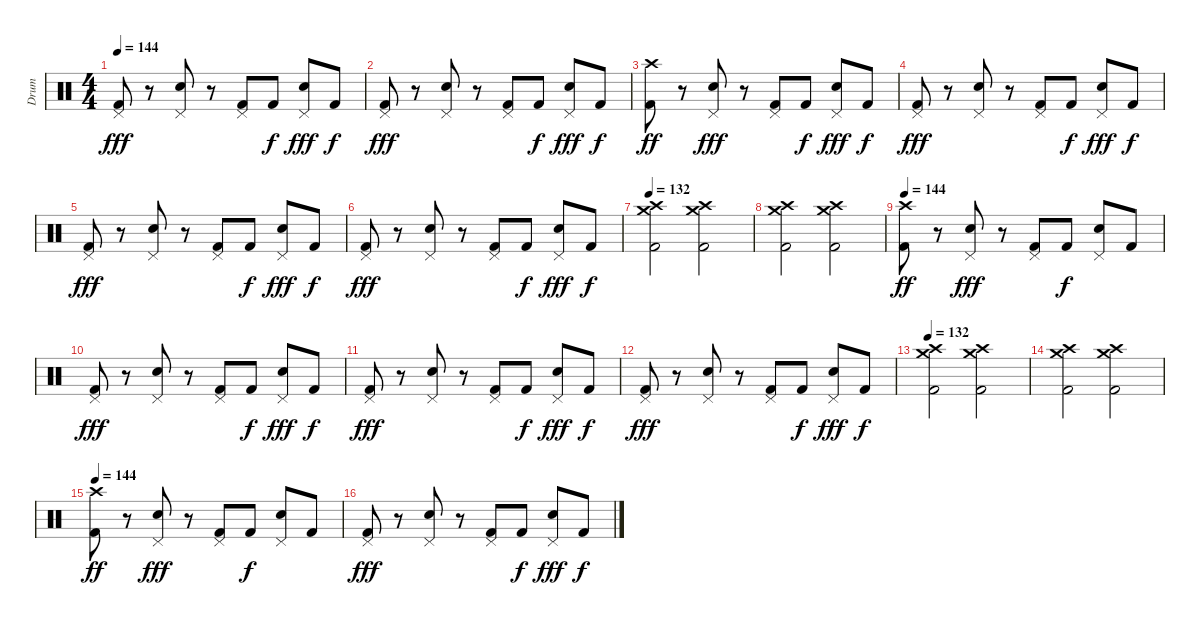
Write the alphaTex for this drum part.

\track ("Drum" "Drum") {instrument percussion}
\staff {score}
\articulation defaults
\ts (4 4)
\tempo 144
\clef neutral
\ks c
("Pedal Hi-Hat (hit)" "Kick (hit) 2").8{dy fff} r.8 ("Pedal Hi-Hat (hit)" "Electric Snare (hit)").8 r.8 ("Pedal Hi-Hat (hit)" "Kick (hit) 2").8 "Kick (hit) 2".8{dy f} ("Pedal Hi-Hat (hit)" "Electric Snare (hit)").8{dy fff} "Kick (hit) 2".8{dy f} |
("Pedal Hi-Hat (hit)" "Kick (hit) 2").8{dy fff} r.8 ("Pedal Hi-Hat (hit)" "Electric Snare (hit)").8 r.8 ("Pedal Hi-Hat (hit)" "Kick (hit) 2").8 "Kick (hit) 2".8{dy f} ("Pedal Hi-Hat (hit)" "Electric Snare (hit)").8{dy fff} "Kick (hit) 2".8{dy f} |
("Crash high (hit)" "Kick (hit) 2").8{dy ff} r.8 ("Pedal Hi-Hat (hit)" "Electric Snare (hit)").8{dy fff} r.8 ("Pedal Hi-Hat (hit)" "Kick (hit) 2").8 "Kick (hit) 2".8{dy f} ("Pedal Hi-Hat (hit)" "Electric Snare (hit)").8{dy fff} "Kick (hit) 2".8{dy f} |
("Pedal Hi-Hat (hit)" "Kick (hit) 2").8{dy fff} r.8 ("Pedal Hi-Hat (hit)" "Electric Snare (hit)").8 r.8 ("Pedal Hi-Hat (hit)" "Kick (hit) 2").8 "Kick (hit) 2".8{dy f} ("Pedal Hi-Hat (hit)" "Electric Snare (hit)").8{dy fff} "Kick (hit) 2".8{dy f} |
("Pedal Hi-Hat (hit)" "Kick (hit) 2").8{dy fff} r.8 ("Pedal Hi-Hat (hit)" "Electric Snare (hit)").8 r.8 ("Pedal Hi-Hat (hit)" "Kick (hit) 2").8 "Kick (hit) 2".8{dy f} ("Pedal Hi-Hat (hit)" "Electric Snare (hit)").8{dy fff} "Kick (hit) 2".8{dy f} |
("Pedal Hi-Hat (hit)" "Kick (hit) 2").8{dy fff} r.8 ("Pedal Hi-Hat (hit)" "Electric Snare (hit)").8 r.8 ("Pedal Hi-Hat (hit)" "Kick (hit) 2").8 "Kick (hit) 2".8{dy f} ("Pedal Hi-Hat (hit)" "Electric Snare (hit)").8{dy fff} "Kick (hit) 2".8{dy f} |
\tempo 132
("Crash high (hit)" "Crash medium (hit)" "Kick (hit) 2").2 ("Crash high (hit)" "Crash medium (hit)" "Kick (hit) 2").2 |
("Crash high (hit)" "Crash medium (hit)" "Kick (hit) 2").2 ("Crash high (hit)" "Crash medium (hit)" "Kick (hit) 2").2 |
\tempo 144
("Crash high (hit)" "Kick (hit) 2").8{dy ff} r.8 ("Pedal Hi-Hat (hit)" "Electric Snare (hit)").8{dy fff} r.8 ("Pedal Hi-Hat (hit)" "Kick (hit) 2").8 "Kick (hit) 2".8{dy f} ("Pedal Hi-Hat (hit)" "Electric Snare (hit)").8 "Kick (hit) 2".8 |
("Pedal Hi-Hat (hit)" "Kick (hit) 2").8{dy fff} r.8 ("Pedal Hi-Hat (hit)" "Electric Snare (hit)").8 r.8 ("Pedal Hi-Hat (hit)" "Kick (hit) 2").8 "Kick (hit) 2".8{dy f} ("Pedal Hi-Hat (hit)" "Electric Snare (hit)").8{dy fff} "Kick (hit) 2".8{dy f} |
("Pedal Hi-Hat (hit)" "Kick (hit) 2").8{dy fff} r.8 ("Pedal Hi-Hat (hit)" "Electric Snare (hit)").8 r.8 ("Pedal Hi-Hat (hit)" "Kick (hit) 2").8 "Kick (hit) 2".8{dy f} ("Pedal Hi-Hat (hit)" "Electric Snare (hit)").8{dy fff} "Kick (hit) 2".8{dy f} |
("Pedal Hi-Hat (hit)" "Kick (hit) 2").8{dy fff} r.8 ("Pedal Hi-Hat (hit)" "Electric Snare (hit)").8 r.8 ("Pedal Hi-Hat (hit)" "Kick (hit) 2").8 "Kick (hit) 2".8{dy f} ("Pedal Hi-Hat (hit)" "Electric Snare (hit)").8{dy fff} "Kick (hit) 2".8{dy f} |
\tempo 132
("Crash high (hit)" "Crash medium (hit)" "Kick (hit) 2").2 ("Crash high (hit)" "Crash medium (hit)" "Kick (hit) 2").2 |
("Crash high (hit)" "Crash medium (hit)" "Kick (hit) 2").2 ("Crash high (hit)" "Crash medium (hit)" "Kick (hit) 2").2 |
\tempo 144
("Crash high (hit)" "Kick (hit) 2").8{dy ff} r.8 ("Pedal Hi-Hat (hit)" "Electric Snare (hit)").8{dy fff} r.8 ("Pedal Hi-Hat (hit)" "Kick (hit) 2").8 "Kick (hit) 2".8{dy f} ("Pedal Hi-Hat (hit)" "Electric Snare (hit)").8 "Kick (hit) 2".8 |
("Pedal Hi-Hat (hit)" "Kick (hit) 2").8{dy fff} r.8 ("Pedal Hi-Hat (hit)" "Electric Snare (hit)").8 r.8 ("Pedal Hi-Hat (hit)" "Kick (hit) 2").8 "Kick (hit) 2".8{dy f} ("Pedal Hi-Hat (hit)" "Electric Snare (hit)").8{dy fff} "Kick (hit) 2".8{dy f}
